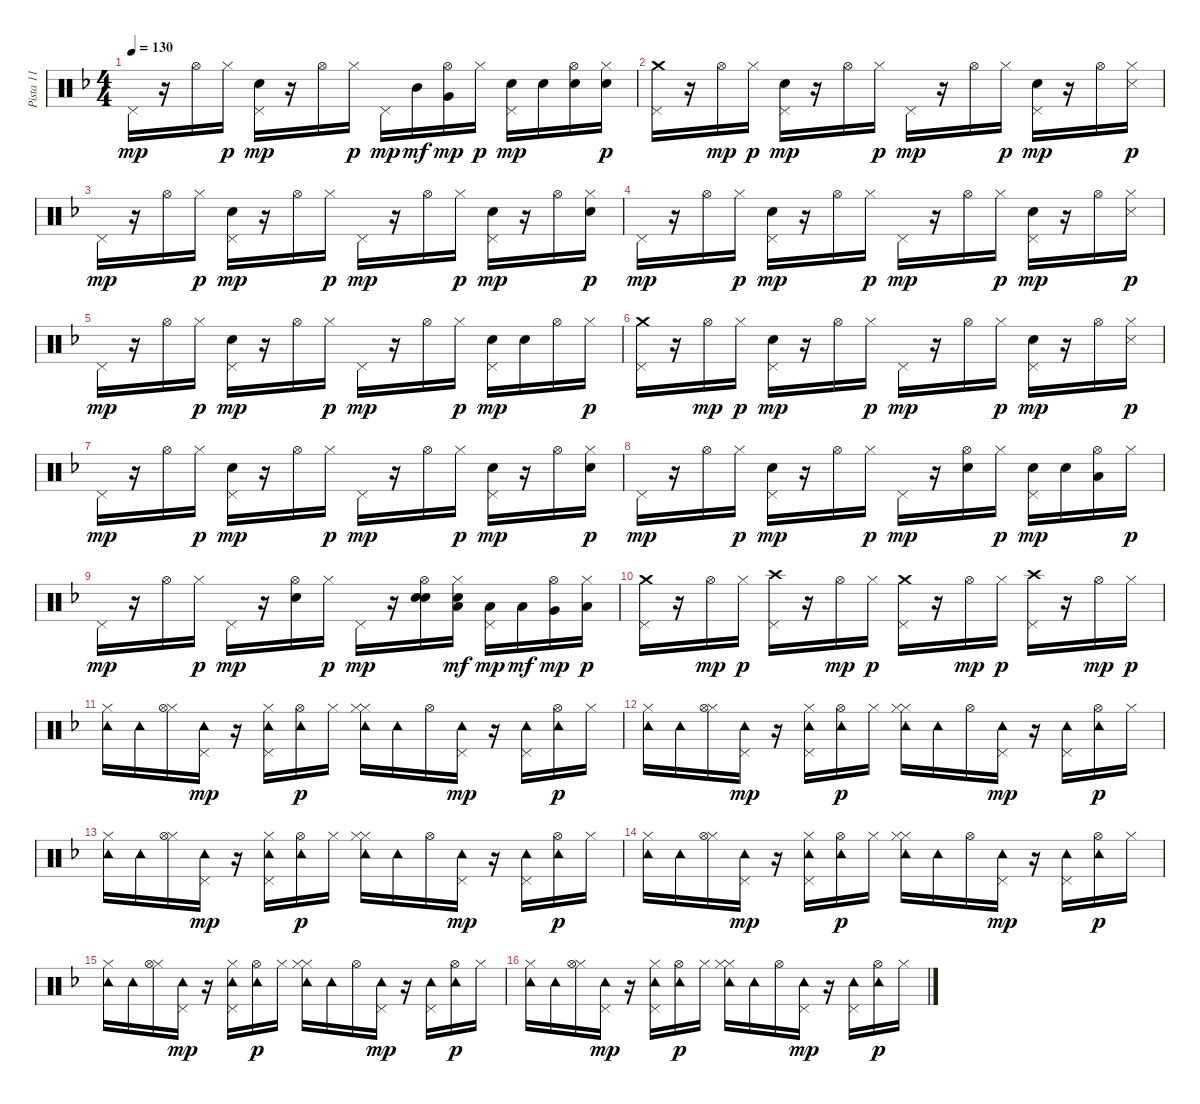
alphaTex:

\track ("Pista 11" "Pista 11") {instrument percussion}
\staff {score}
\articulation defaults
\ts (4 4)
\tempo 130
\clef neutral
\ks dminor "Pedal Hi-Hat (hit)".16{dy mp}
r.16 "Hi-Hat (open)".16 "Hi-Hat (closed)".16{dy p} ("Snare (hit) 2" "Pedal Hi-Hat (hit)").16{dy mp} r.16 "Hi-Hat (open)".16 "Hi-Hat (closed)".16{dy p} "Pedal Hi-Hat (hit)".16{dy mp} "Mid Tom (hit)".16{dy mf} ("Very Low Tom (hit)" "Hi-Hat (open)").16{dy mp} "Hi-Hat (closed)".16{dy p} ("Snare (hit) 2" "Pedal Hi-Hat (hit)").16{dy mp} "Snare (hit) 2".16 ("Snare (hit) 2" "Hi-Hat (open)").16 ("Snare (hit) 2" "Hi-Hat (closed)").16{dy p} |
("Pedal Hi-Hat (hit)" "Crash medium (hit)").16 r.16 "Hi-Hat (open)".16{dy mp} "Hi-Hat (closed)".16{dy p} ("Snare (hit) 2" "Pedal Hi-Hat (hit)").16{dy mp} r.16 "Hi-Hat (open)".16 "Hi-Hat (closed)".16{dy p} "Pedal Hi-Hat (hit)".16{dy mp} r.16 "Hi-Hat (open)".16 "Hi-Hat (closed)".16{dy p} ("Snare (hit) 2" "Pedal Hi-Hat (hit)").16{dy mp} r.16 "Hi-Hat (open)".16 ("Snare (side stick) 3" "Hi-Hat (closed)").16{dy p} |
"Pedal Hi-Hat (hit)".16{dy mp} r.16 "Hi-Hat (open)".16 "Hi-Hat (closed)".16{dy p} ("Snare (hit) 2" "Pedal Hi-Hat (hit)").16{dy mp} r.16 "Hi-Hat (open)".16 "Hi-Hat (closed)".16{dy p} "Pedal Hi-Hat (hit)".16{dy mp} r.16 "Hi-Hat (open)".16 "Hi-Hat (closed)".16{dy p} ("Snare (hit) 2" "Pedal Hi-Hat (hit)").16{dy mp} r.16 "Hi-Hat (open)".16 ("Electric Snare (hit)" "Hi-Hat (closed)").16{dy p} |
"Pedal Hi-Hat (hit)".16{dy mp} r.16 "Hi-Hat (open)".16 "Hi-Hat (closed)".16{dy p} ("Snare (hit) 2" "Pedal Hi-Hat (hit)").16{dy mp} r.16 "Hi-Hat (open)".16 "Hi-Hat (closed)".16{dy p} "Pedal Hi-Hat (hit)".16{dy mp} r.16 "Hi-Hat (open)".16 "Hi-Hat (closed)".16{dy p} ("Snare (hit) 2" "Pedal Hi-Hat (hit)").16{dy mp} r.16 "Hi-Hat (open)".16 ("Snare (side stick) 3" "Hi-Hat (closed)").16{dy p} |
"Pedal Hi-Hat (hit)".16{dy mp} r.16 "Hi-Hat (open)".16 "Hi-Hat (closed)".16{dy p} ("Snare (hit) 2" "Pedal Hi-Hat (hit)").16{dy mp} r.16 "Hi-Hat (open)".16 "Hi-Hat (closed)".16{dy p} "Pedal Hi-Hat (hit)".16{dy mp} r.16 "Hi-Hat (open)".16 "Hi-Hat (closed)".16{dy p} ("Snare (hit) 2" "Pedal Hi-Hat (hit)").16{dy mp} "Snare (hit) 2".16 "Hi-Hat (open)".16 "Hi-Hat (closed)".16{dy p} |
("Pedal Hi-Hat (hit)" "Crash medium (hit)").16 r.16 "Hi-Hat (open)".16{dy mp} "Hi-Hat (closed)".16{dy p} ("Snare (hit) 2" "Pedal Hi-Hat (hit)").16{dy mp} r.16 "Hi-Hat (open)".16 "Hi-Hat (closed)".16{dy p} "Pedal Hi-Hat (hit)".16{dy mp} r.16 "Hi-Hat (open)".16 "Hi-Hat (closed)".16{dy p} ("Snare (hit) 2" "Pedal Hi-Hat (hit)").16{dy mp} r.16 "Hi-Hat (open)".16 ("Snare (side stick) 3" "Hi-Hat (closed)").16{dy p} |
"Pedal Hi-Hat (hit)".16{dy mp} r.16 "Hi-Hat (open)".16 "Hi-Hat (closed)".16{dy p} ("Snare (hit) 2" "Pedal Hi-Hat (hit)").16{dy mp} r.16 "Hi-Hat (open)".16 "Hi-Hat (closed)".16{dy p} "Pedal Hi-Hat (hit)".16{dy mp} r.16 "Hi-Hat (open)".16 "Hi-Hat (closed)".16{dy p} ("Snare (hit) 2" "Pedal Hi-Hat (hit)").16{dy mp} r.16 "Hi-Hat (open)".16 ("Electric Snare (hit)" "Hi-Hat (closed)").16{dy p} |
"Pedal Hi-Hat (hit)".16{dy mp} r.16 "Hi-Hat (open)".16 "Hi-Hat (closed)".16{dy p} ("Snare (hit) 2" "Pedal Hi-Hat (hit)").16{dy mp} r.16 "Hi-Hat (open)".16 "Hi-Hat (closed)".16{dy p} "Pedal Hi-Hat (hit)".16{dy mp} r.16 ("Snare (hit) 2" "Hi-Hat (open)").16 "Hi-Hat (closed)".16{dy p} ("Snare (hit) 2" "Pedal Hi-Hat (hit)").16{dy mp} "Snare (hit) 2".16 ("Low Floor Tom (hit)" "Hi-Hat (open)").16 "Hi-Hat (closed)".16{dy p} |
"Pedal Hi-Hat (hit)".16{dy mp} r.16 "Hi-Hat (open)".16 "Hi-Hat (closed)".16{dy p} "Pedal Hi-Hat (hit)".16{dy mp} r.16 ("Snare (hit) 2" "Hi-Hat (open)").16 "Hi-Hat (closed)".16{dy p} "Pedal Hi-Hat (hit)".16{dy mp} r.16 ("Snare (hit) 2" "Hi-Hat (open)" "Snare (hit) 2").16 ("Snare (hit) 2" "Hi-Hat (closed)" "Low Tom (hit)").16{dy mf} ("Low Tom (hit)" "Pedal Hi-Hat (hit)").16{dy mp} "Low Tom (hit)".16{dy mf} ("Very Low Tom (hit)" "Hi-Hat (open)").16{dy mp} ("Low Floor Tom (hit)" "Hi-Hat (closed)").16{dy p} |
("Pedal Hi-Hat (hit)" "Crash medium (hit)").16 r.16 "Hi-Hat (open)".16{dy mp} "Hi-Hat (closed)".16{dy p} ("Pedal Hi-Hat (hit)" "Crash high (hit)").16 r.16 "Hi-Hat (open)".16{dy mp} "Hi-Hat (closed)".16{dy p} ("Pedal Hi-Hat (hit)" "Crash medium (hit)").16 r.16 "Hi-Hat (open)".16{dy mp} "Hi-Hat (closed)".16{dy p} ("Pedal Hi-Hat (hit)" "Crash high (hit)").16 r.16 "Hi-Hat (open)".16{dy mp} "Hi-Hat (closed)".16{dy p} |
("Tambourine (hit)" "Hi-Hat (closed)").16 "Tambourine (hit)".16 ("Hi-Hat (closed)" "Hi-Hat (open)").16 ("Tambourine (hit)" "Pedal Hi-Hat (hit)").16{dy mp} r.16 ("Tambourine (hit)" "Hi-Hat (closed)" "Pedal Hi-Hat (hit)").16 ("Tambourine (hit)" "Hi-Hat (open)").16{dy p} "Hi-Hat (closed)".16 ("Tambourine (hit)" "Hi-Hat (closed)" "Hi-Hat (closed)").16 "Tambourine (hit)".16 "Hi-Hat (open)".16 ("Tambourine (hit)" "Pedal Hi-Hat (hit)").16{dy mp} r.16 ("Tambourine (hit)" "Pedal Hi-Hat (hit)").16 ("Tambourine (hit)" "Hi-Hat (open)").16{dy p} "Hi-Hat (closed)".16 |
("Tambourine (hit)" "Hi-Hat (closed)").16 "Tambourine (hit)".16 ("Hi-Hat (closed)" "Hi-Hat (open)").16 ("Tambourine (hit)" "Pedal Hi-Hat (hit)").16{dy mp} r.16 ("Tambourine (hit)" "Hi-Hat (closed)" "Pedal Hi-Hat (hit)").16 ("Tambourine (hit)" "Hi-Hat (open)").16{dy p} "Hi-Hat (closed)".16 ("Tambourine (hit)" "Hi-Hat (closed)" "Hi-Hat (closed)").16 "Tambourine (hit)".16 "Hi-Hat (open)".16 ("Tambourine (hit)" "Pedal Hi-Hat (hit)").16{dy mp} r.16 ("Tambourine (hit)" "Pedal Hi-Hat (hit)").16 ("Tambourine (hit)" "Hi-Hat (open)").16{dy p} "Hi-Hat (closed)".16 |
("Tambourine (hit)" "Hi-Hat (closed)").16 "Tambourine (hit)".16 ("Hi-Hat (closed)" "Hi-Hat (open)").16 ("Tambourine (hit)" "Pedal Hi-Hat (hit)").16{dy mp} r.16 ("Tambourine (hit)" "Hi-Hat (closed)" "Pedal Hi-Hat (hit)").16 ("Tambourine (hit)" "Hi-Hat (open)").16{dy p} "Hi-Hat (closed)".16 ("Tambourine (hit)" "Hi-Hat (closed)" "Hi-Hat (closed)").16 "Tambourine (hit)".16 "Hi-Hat (open)".16 ("Tambourine (hit)" "Pedal Hi-Hat (hit)").16{dy mp} r.16 ("Tambourine (hit)" "Pedal Hi-Hat (hit)").16 ("Tambourine (hit)" "Hi-Hat (open)").16{dy p} "Hi-Hat (closed)".16 |
("Tambourine (hit)" "Hi-Hat (closed)").16 "Tambourine (hit)".16 ("Hi-Hat (closed)" "Hi-Hat (open)").16 ("Tambourine (hit)" "Pedal Hi-Hat (hit)").16{dy mp} r.16 ("Tambourine (hit)" "Hi-Hat (closed)" "Pedal Hi-Hat (hit)").16 ("Tambourine (hit)" "Hi-Hat (open)").16{dy p} "Hi-Hat (closed)".16 ("Tambourine (hit)" "Hi-Hat (closed)" "Hi-Hat (closed)").16 "Tambourine (hit)".16 "Hi-Hat (open)".16 ("Tambourine (hit)" "Pedal Hi-Hat (hit)").16{dy mp} r.16 ("Tambourine (hit)" "Pedal Hi-Hat (hit)").16 ("Tambourine (hit)" "Hi-Hat (open)").16{dy p} "Hi-Hat (closed)".16 |
("Tambourine (hit)" "Hi-Hat (closed)").16 "Tambourine (hit)".16 ("Hi-Hat (closed)" "Hi-Hat (open)").16 ("Tambourine (hit)" "Pedal Hi-Hat (hit)").16{dy mp} r.16 ("Tambourine (hit)" "Hi-Hat (closed)" "Pedal Hi-Hat (hit)").16 ("Tambourine (hit)" "Hi-Hat (open)").16{dy p} "Hi-Hat (closed)".16 ("Tambourine (hit)" "Hi-Hat (closed)" "Hi-Hat (closed)").16 "Tambourine (hit)".16 "Hi-Hat (open)".16 ("Tambourine (hit)" "Pedal Hi-Hat (hit)").16{dy mp} r.16 ("Tambourine (hit)" "Pedal Hi-Hat (hit)").16 ("Tambourine (hit)" "Hi-Hat (open)").16{dy p} "Hi-Hat (closed)".16 |
("Tambourine (hit)" "Hi-Hat (closed)").16 "Tambourine (hit)".16 ("Hi-Hat (closed)" "Hi-Hat (open)").16 ("Tambourine (hit)" "Pedal Hi-Hat (hit)").16{dy mp} r.16 ("Tambourine (hit)" "Hi-Hat (closed)" "Pedal Hi-Hat (hit)").16 ("Tambourine (hit)" "Hi-Hat (open)").16{dy p} "Hi-Hat (closed)".16 ("Tambourine (hit)" "Hi-Hat (closed)" "Hi-Hat (closed)").16 "Tambourine (hit)".16 "Hi-Hat (open)".16 ("Tambourine (hit)" "Pedal Hi-Hat (hit)").16{dy mp} r.16 ("Tambourine (hit)" "Pedal Hi-Hat (hit)").16 ("Tambourine (hit)" "Hi-Hat (open)").16{dy p} "Hi-Hat (closed)".16
